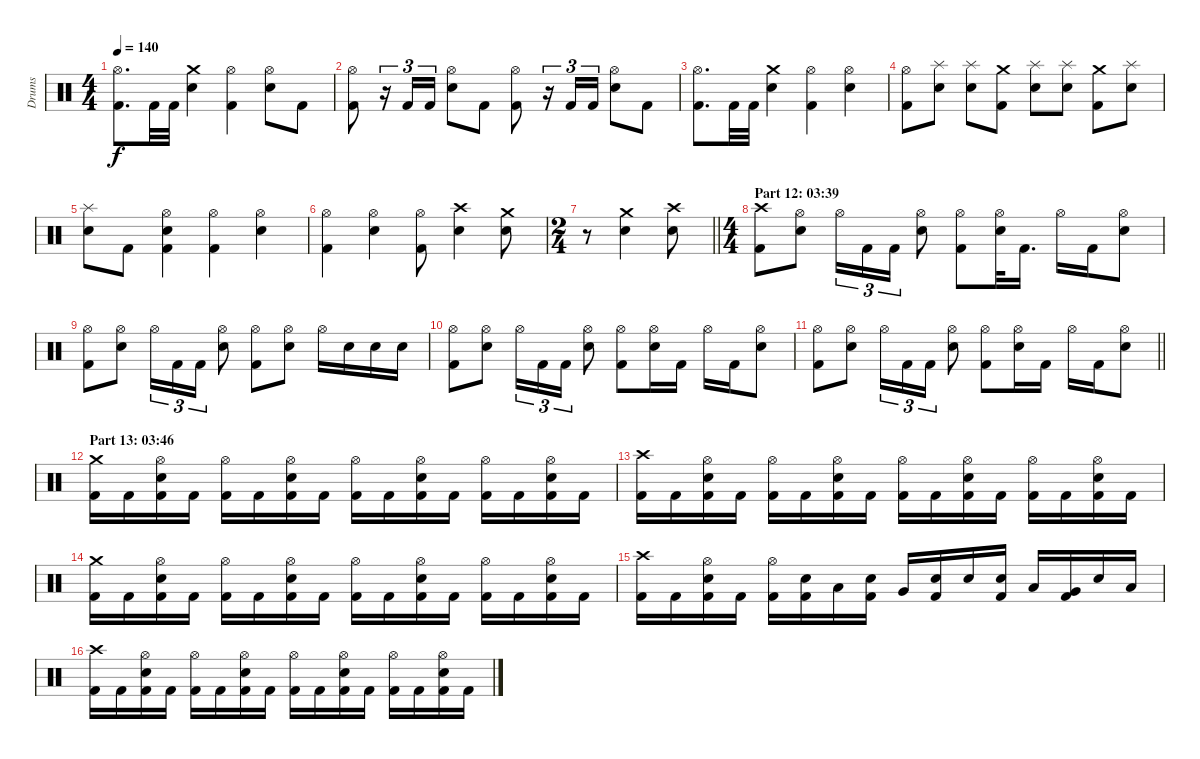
\track ("Drums" "Drums") {instrument percussion}
\staff {score}
\articulation defaults
\ts (4 4)
\tempo 140
\clef neutral
\ks c
("Hi-Hat (open)" "Kick (hit) 2").8{d dy f} "Kick (hit) 2".32 "Kick (hit) 2".32 ("Crash medium (hit)" "Electric Snare (hit)").4 ("Hi-Hat (open)" "Kick (hit) 2").4 ("Hi-Hat (open)" "Electric Snare (hit)").8 "Kick (hit) 2".8 |
("Hi-Hat (open)" "Kick (hit) 2").8 r.16{tu (3 2)} "Kick (hit) 2".16{tu (3 2)} "Kick (hit) 2".16{tu (3 2)} ("Hi-Hat (open)" "Electric Snare (hit)").8 "Kick (hit) 2".8 ("Hi-Hat (open)" "Kick (hit) 2").8 r.16{tu (3 2)} "Kick (hit) 2".16{tu (3 2)} "Kick (hit) 2".16{tu (3 2)} ("Hi-Hat (open)" "Electric Snare (hit)").8 "Kick (hit) 2".8 |
("Hi-Hat (open)" "Kick (hit) 2").8{d} "Kick (hit) 2".32 "Kick (hit) 2".32 ("Crash medium (hit)" "Electric Snare (hit)").4 ("Hi-Hat (open)" "Kick (hit) 2").4 ("Hi-Hat (open)" "Electric Snare (hit)").4 |
("Hi-Hat (open)" "Kick (hit) 2").8 ("Splash (hit)" "Electric Snare (hit)").8 ("Splash (hit)" "Electric Snare (hit)").8 ("Crash medium (hit)" "Kick (hit) 2").8 ("Splash (hit)" "Electric Snare (hit)").8 ("Splash (hit)" "Electric Snare (hit)").8 ("Crash medium (hit)" "Kick (hit) 2").8 ("Splash (hit)" "Electric Snare (hit)").8 |
("Splash (hit)" "Electric Snare (hit)").8 "Kick (hit) 2".8 ("Hi-Hat (open)" "Electric Snare (hit)" "Kick (hit) 2").4 ("Hi-Hat (open)" "Kick (hit) 2").4 ("Hi-Hat (open)" "Electric Snare (hit)").4 |
("Hi-Hat (open)" "Kick (hit) 2").4 ("Hi-Hat (open)" "Electric Snare (hit)").4 ("Hi-Hat (open)" "Kick (hit) 2").8 ("Crash high (hit)" "Electric Snare (hit)").4 ("Crash medium (hit)" "Electric Snare (hit)").8 |
\ts (2 4)
\barLineRight lightlight
r.8 ("Crash medium (hit)" "Electric Snare (hit)").4 ("Crash high (hit)" "Electric Snare (hit)").8 |
\ts (4 4)
\section ("" "Part 12: 03:39")
("Crash high (hit)" "Kick (hit) 2").8 ("Hi-Hat (open)" "Electric Snare (hit)").8 "Hi-Hat (open)".16{tu (3 2)} "Kick (hit) 2".16{tu (3 2)} "Kick (hit) 2".16{tu (3 2)} ("Hi-Hat (open)" "Electric Snare (hit)").8 ("Hi-Hat (open)" "Kick (hit) 2").8 ("Hi-Hat (open)" "Electric Snare (hit)").32 "Kick (hit) 2".16{d} "Hi-Hat (open)".16 "Kick (hit) 2".16 ("Hi-Hat (open)" "Electric Snare (hit)").8 |
("Hi-Hat (open)" "Kick (hit) 2").8 ("Hi-Hat (open)" "Electric Snare (hit)").8 "Hi-Hat (open)".16{tu (3 2)} "Kick (hit) 2".16{tu (3 2)} "Kick (hit) 2".16{tu (3 2)} ("Hi-Hat (open)" "Electric Snare (hit)").8 ("Hi-Hat (open)" "Kick (hit) 2").8 ("Hi-Hat (open)" "Electric Snare (hit)").8 "Hi-Hat (open)".16 "Electric Snare (hit)".16 "Electric Snare (hit)".16 "Electric Snare (hit)".16 |
("Hi-Hat (open)" "Kick (hit) 2").8 ("Hi-Hat (open)" "Electric Snare (hit)").8 "Hi-Hat (open)".16{tu (3 2)} "Kick (hit) 2".16{tu (3 2)} "Kick (hit) 2".16{tu (3 2)} ("Hi-Hat (open)" "Electric Snare (hit)").8 ("Hi-Hat (open)" "Kick (hit) 2").8 ("Hi-Hat (open)" "Electric Snare (hit)").16 "Kick (hit) 2".16 "Hi-Hat (open)".16 "Kick (hit) 2".16 ("Hi-Hat (open)" "Electric Snare (hit)").8 |
\barLineRight lightlight
("Hi-Hat (open)" "Kick (hit) 2").8 ("Hi-Hat (open)" "Electric Snare (hit)").8 "Hi-Hat (open)".16{tu (3 2)} "Kick (hit) 2".16{tu (3 2)} "Kick (hit) 2".16{tu (3 2)} ("Hi-Hat (open)" "Electric Snare (hit)").8 ("Hi-Hat (open)" "Kick (hit) 2").8 ("Hi-Hat (open)" "Electric Snare (hit)").16 "Kick (hit) 2".16 "Hi-Hat (open)".16 "Kick (hit) 2".16 ("Hi-Hat (open)" "Electric Snare (hit)").8 |
\section ("" "Part 13: 03:46")
("Crash medium (hit)" "Kick (hit) 2").16 "Kick (hit) 2".16 ("Hi-Hat (open)" "Electric Snare (hit)" "Kick (hit) 2").16 "Kick (hit) 2".16 ("Hi-Hat (open)" "Kick (hit) 2").16 "Kick (hit) 2".16 ("Hi-Hat (open)" "Electric Snare (hit)" "Kick (hit) 2").16 "Kick (hit) 2".16 ("Hi-Hat (open)" "Kick (hit) 2").16 "Kick (hit) 2".16 ("Hi-Hat (open)" "Electric Snare (hit)" "Kick (hit) 2").16 "Kick (hit) 2".16 ("Hi-Hat (open)" "Kick (hit) 2").16 "Kick (hit) 2".16 ("Hi-Hat (open)" "Electric Snare (hit)" "Kick (hit) 2").16 "Kick (hit) 2".16 |
("Crash high (hit)" "Kick (hit) 2").16 "Kick (hit) 2".16 ("Hi-Hat (open)" "Electric Snare (hit)" "Kick (hit) 2").16 "Kick (hit) 2".16 ("Hi-Hat (open)" "Kick (hit) 2").16 "Kick (hit) 2".16 ("Hi-Hat (open)" "Electric Snare (hit)" "Kick (hit) 2").16 "Kick (hit) 2".16 ("Hi-Hat (open)" "Kick (hit) 2").16 "Kick (hit) 2".16 ("Hi-Hat (open)" "Electric Snare (hit)" "Kick (hit) 2").16 "Kick (hit) 2".16 ("Hi-Hat (open)" "Kick (hit) 2").16 "Kick (hit) 2".16 ("Hi-Hat (open)" "Electric Snare (hit)" "Kick (hit) 2").16 "Kick (hit) 2".16 |
("Crash medium (hit)" "Kick (hit) 2").16 "Kick (hit) 2".16 ("Hi-Hat (open)" "Electric Snare (hit)" "Kick (hit) 2").16 "Kick (hit) 2".16 ("Hi-Hat (open)" "Kick (hit) 2").16 "Kick (hit) 2".16 ("Hi-Hat (open)" "Electric Snare (hit)" "Kick (hit) 2").16 "Kick (hit) 2".16 ("Hi-Hat (open)" "Kick (hit) 2").16 "Kick (hit) 2".16 ("Hi-Hat (open)" "Electric Snare (hit)" "Kick (hit) 2").16 "Kick (hit) 2".16 ("Hi-Hat (open)" "Kick (hit) 2").16 "Kick (hit) 2".16 ("Hi-Hat (open)" "Electric Snare (hit)" "Kick (hit) 2").16 "Kick (hit) 2".16 |
("Crash high (hit)" "Kick (hit) 2").16 "Kick (hit) 2".16 ("Hi-Hat (open)" "Electric Snare (hit)" "Kick (hit) 2").16 "Kick (hit) 2".16 ("Hi-Hat (open)" "Kick (hit) 2").16 ("Electric Snare (hit)" "Kick (hit) 2").16 "Low Tom (hit)".16 ("Electric Snare (hit)" "Kick (hit) 2").16 "Very Low Tom (hit)".16 ("Electric Snare (hit)" "Kick (hit) 2").16 "Electric Snare (hit)".16 ("Electric Snare (hit)" "Kick (hit) 2").16 "Low Tom (hit)".16 ("Very Low Tom (hit)" "Kick (hit) 2").16 "Electric Snare (hit)".16 "Low Tom (hit)".16 |
("Crash high (hit)" "Kick (hit) 2").16 "Kick (hit) 2".16 ("Hi-Hat (open)" "Electric Snare (hit)" "Kick (hit) 2").16 "Kick (hit) 2".16 ("Hi-Hat (open)" "Kick (hit) 2").16 "Kick (hit) 2".16 ("Hi-Hat (open)" "Electric Snare (hit)" "Kick (hit) 2").16 "Kick (hit) 2".16 ("Hi-Hat (open)" "Kick (hit) 2").16 "Kick (hit) 2".16 ("Hi-Hat (open)" "Electric Snare (hit)" "Kick (hit) 2").16 "Kick (hit) 2".16 ("Hi-Hat (open)" "Kick (hit) 2").16 "Kick (hit) 2".16 ("Hi-Hat (open)" "Electric Snare (hit)" "Kick (hit) 2").16 "Kick (hit) 2".16
